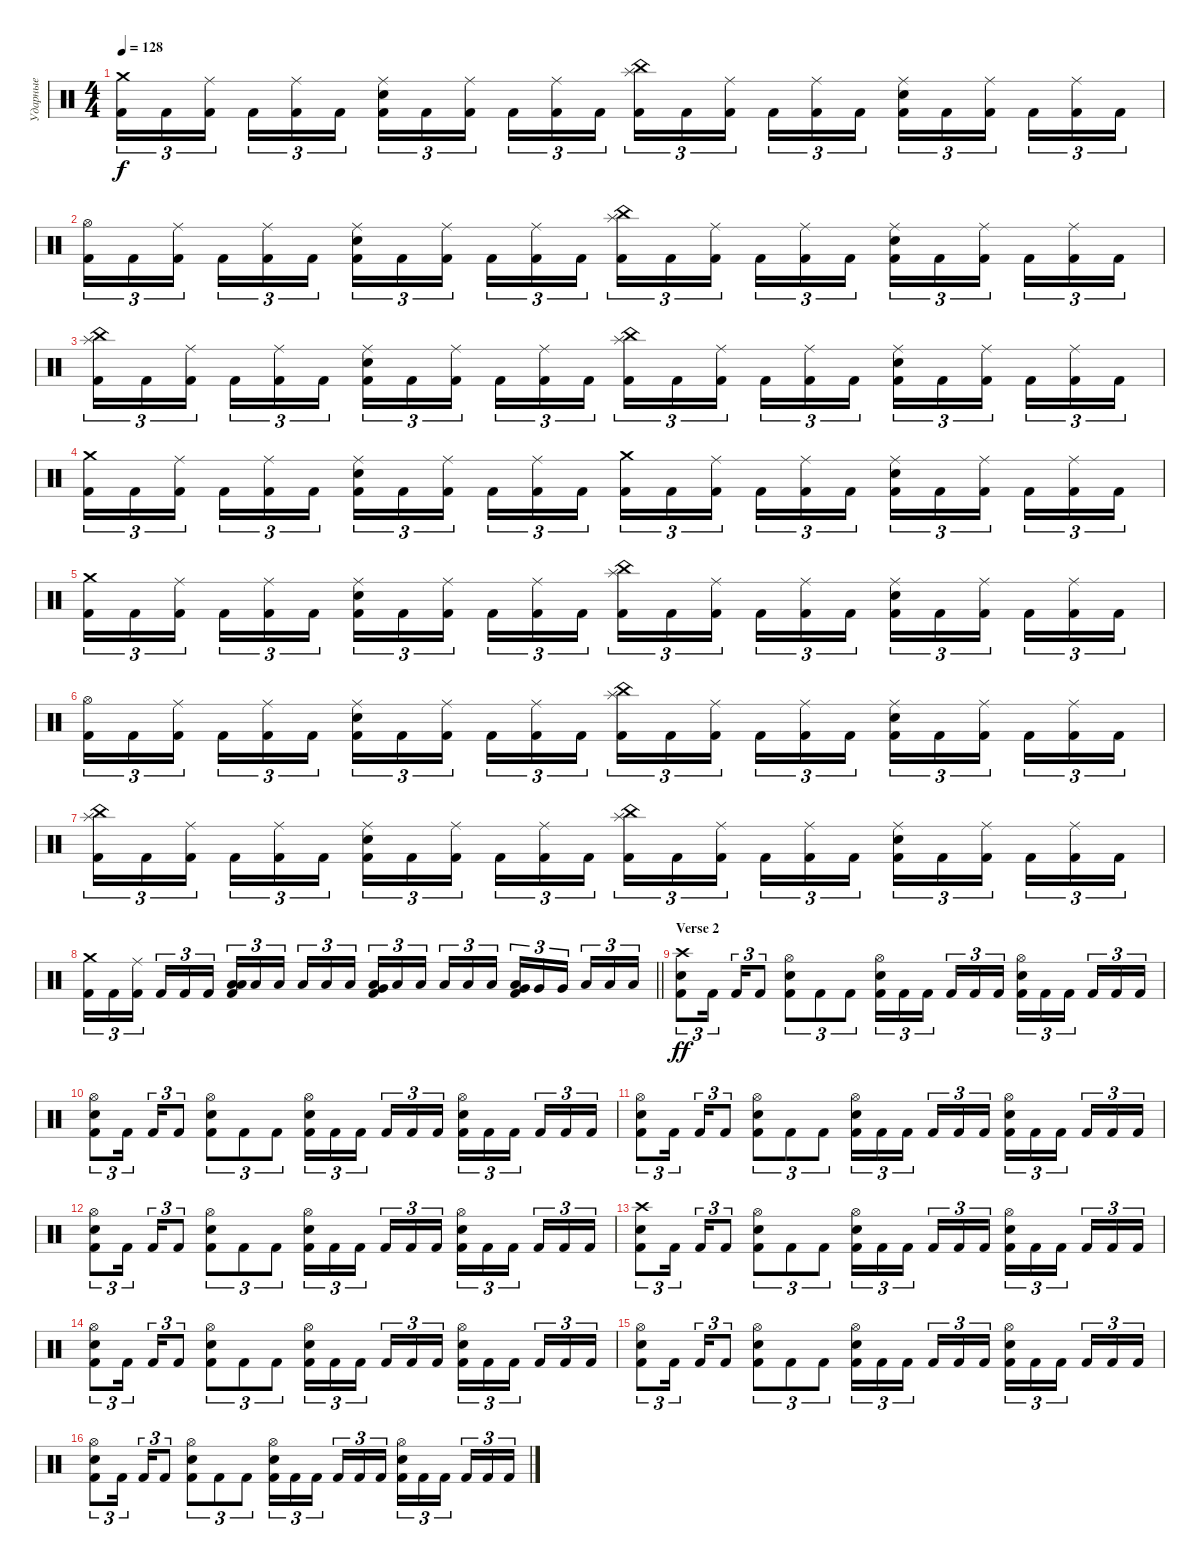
\track ("Ударные" "Ударные") {instrument percussion}
\staff {score}
\articulation defaults
\ts (4 4)
\tempo 128
\clef neutral
\ks c
("Crash medium (hit)" "Kick (hit) 2").16{tu (3 2) dy f} "Kick (hit) 2".16{tu (3 2)} ("Ride (middle)" "Kick (hit) 2").16{tu (3 2) beam splitsecondary} "Kick (hit) 2".16{tu (3 2)} ("Ride (middle)" "Kick (hit) 2").16{tu (3 2)} "Kick (hit) 2".16{tu (3 2)} ("Ride (middle)" "Electric Snare (hit)" "Kick (hit) 2").16{tu (3 2)} "Kick (hit) 2".16{tu (3 2)} ("Ride (middle)" "Kick (hit) 2").16{tu (3 2) beam splitsecondary} "Kick (hit) 2".16{tu (3 2)} ("Ride (middle)" "Kick (hit) 2").16{tu (3 2)} "Kick (hit) 2".16{tu (3 2)} ("China (hit)" "Splash (hit)" "Kick (hit) 2").16{tu (3 2)} "Kick (hit) 2".16{tu (3 2)} ("Ride (middle)" "Kick (hit) 2").16{tu (3 2) beam splitsecondary} "Kick (hit) 2".16{tu (3 2)} ("Ride (middle)" "Kick (hit) 2").16{tu (3 2)} "Kick (hit) 2".16{tu (3 2)} ("Ride (middle)" "Electric Snare (hit)" "Kick (hit) 2").16{tu (3 2)} "Kick (hit) 2".16{tu (3 2)} ("Ride (middle)" "Kick (hit) 2").16{tu (3 2) beam splitsecondary} "Kick (hit) 2".16{tu (3 2)} ("Ride (middle)" "Kick (hit) 2").16{tu (3 2)} "Kick (hit) 2".16{tu (3 2)} |
("Hi-Hat (open)" "Kick (hit) 2").16{tu (3 2)} "Kick (hit) 2".16{tu (3 2)} ("Ride (middle)" "Kick (hit) 2").16{tu (3 2) beam splitsecondary} "Kick (hit) 2".16{tu (3 2)} ("Ride (middle)" "Kick (hit) 2").16{tu (3 2)} "Kick (hit) 2".16{tu (3 2)} ("Ride (middle)" "Electric Snare (hit)" "Kick (hit) 2").16{tu (3 2)} "Kick (hit) 2".16{tu (3 2)} ("Ride (middle)" "Kick (hit) 2").16{tu (3 2) beam splitsecondary} "Kick (hit) 2".16{tu (3 2)} ("Ride (middle)" "Kick (hit) 2").16{tu (3 2)} "Kick (hit) 2".16{tu (3 2)} ("China (hit)" "Splash (hit)" "Kick (hit) 2").16{tu (3 2)} "Kick (hit) 2".16{tu (3 2)} ("Ride (middle)" "Kick (hit) 2").16{tu (3 2) beam splitsecondary} "Kick (hit) 2".16{tu (3 2)} ("Ride (middle)" "Kick (hit) 2").16{tu (3 2)} "Kick (hit) 2".16{tu (3 2)} ("Ride (middle)" "Electric Snare (hit)" "Kick (hit) 2").16{tu (3 2)} "Kick (hit) 2".16{tu (3 2)} ("Ride (middle)" "Kick (hit) 2").16{tu (3 2) beam splitsecondary} "Kick (hit) 2".16{tu (3 2)} ("Ride (middle)" "Kick (hit) 2").16{tu (3 2)} "Kick (hit) 2".16{tu (3 2)} |
("China (hit)" "Splash (hit)" "Kick (hit) 2").16{tu (3 2)} "Kick (hit) 2".16{tu (3 2)} ("Ride (middle)" "Kick (hit) 2").16{tu (3 2) beam splitsecondary} "Kick (hit) 2".16{tu (3 2)} ("Ride (middle)" "Kick (hit) 2").16{tu (3 2)} "Kick (hit) 2".16{tu (3 2)} ("Ride (middle)" "Electric Snare (hit)" "Kick (hit) 2").16{tu (3 2)} "Kick (hit) 2".16{tu (3 2)} ("Ride (middle)" "Kick (hit) 2").16{tu (3 2) beam splitsecondary} "Kick (hit) 2".16{tu (3 2)} ("Ride (middle)" "Kick (hit) 2").16{tu (3 2)} "Kick (hit) 2".16{tu (3 2)} ("China (hit)" "Splash (hit)" "Kick (hit) 2").16{tu (3 2)} "Kick (hit) 2".16{tu (3 2)} ("Ride (middle)" "Kick (hit) 2").16{tu (3 2) beam splitsecondary} "Kick (hit) 2".16{tu (3 2)} ("Ride (middle)" "Kick (hit) 2").16{tu (3 2)} "Kick (hit) 2".16{tu (3 2)} ("Ride (middle)" "Electric Snare (hit)" "Kick (hit) 2").16{tu (3 2)} "Kick (hit) 2".16{tu (3 2)} ("Ride (middle)" "Kick (hit) 2").16{tu (3 2) beam splitsecondary} "Kick (hit) 2".16{tu (3 2)} ("Ride (middle)" "Kick (hit) 2").16{tu (3 2)} "Kick (hit) 2".16{tu (3 2)} |
("Crash medium (hit)" "Kick (hit) 2").16{tu (3 2)} "Kick (hit) 2".16{tu (3 2)} ("Ride (middle)" "Kick (hit) 2").16{tu (3 2) beam splitsecondary} "Kick (hit) 2".16{tu (3 2)} ("Ride (middle)" "Kick (hit) 2").16{tu (3 2)} "Kick (hit) 2".16{tu (3 2)} ("Ride (middle)" "Electric Snare (hit)" "Kick (hit) 2").16{tu (3 2)} "Kick (hit) 2".16{tu (3 2)} ("Ride (middle)" "Kick (hit) 2").16{tu (3 2) beam splitsecondary} "Kick (hit) 2".16{tu (3 2)} ("Ride (middle)" "Kick (hit) 2").16{tu (3 2)} "Kick (hit) 2".16{tu (3 2)} ("Crash medium (hit)" "Kick (hit) 2").16{tu (3 2)} "Kick (hit) 2".16{tu (3 2)} ("Ride (middle)" "Kick (hit) 2").16{tu (3 2) beam splitsecondary} "Kick (hit) 2".16{tu (3 2)} ("Ride (middle)" "Kick (hit) 2").16{tu (3 2)} "Kick (hit) 2".16{tu (3 2)} ("Ride (middle)" "Electric Snare (hit)" "Kick (hit) 2").16{tu (3 2)} "Kick (hit) 2".16{tu (3 2)} ("Ride (middle)" "Kick (hit) 2").16{tu (3 2) beam splitsecondary} "Kick (hit) 2".16{tu (3 2)} ("Ride (middle)" "Kick (hit) 2").16{tu (3 2)} "Kick (hit) 2".16{tu (3 2)} |
("Crash medium (hit)" "Kick (hit) 2").16{tu (3 2)} "Kick (hit) 2".16{tu (3 2)} ("Ride (middle)" "Kick (hit) 2").16{tu (3 2) beam splitsecondary} "Kick (hit) 2".16{tu (3 2)} ("Ride (middle)" "Kick (hit) 2").16{tu (3 2)} "Kick (hit) 2".16{tu (3 2)} ("Ride (middle)" "Electric Snare (hit)" "Kick (hit) 2").16{tu (3 2)} "Kick (hit) 2".16{tu (3 2)} ("Ride (middle)" "Kick (hit) 2").16{tu (3 2) beam splitsecondary} "Kick (hit) 2".16{tu (3 2)} ("Ride (middle)" "Kick (hit) 2").16{tu (3 2)} "Kick (hit) 2".16{tu (3 2)} ("China (hit)" "Splash (hit)" "Kick (hit) 2").16{tu (3 2)} "Kick (hit) 2".16{tu (3 2)} ("Ride (middle)" "Kick (hit) 2").16{tu (3 2) beam splitsecondary} "Kick (hit) 2".16{tu (3 2)} ("Ride (middle)" "Kick (hit) 2").16{tu (3 2)} "Kick (hit) 2".16{tu (3 2)} ("Ride (middle)" "Electric Snare (hit)" "Kick (hit) 2").16{tu (3 2)} "Kick (hit) 2".16{tu (3 2)} ("Ride (middle)" "Kick (hit) 2").16{tu (3 2) beam splitsecondary} "Kick (hit) 2".16{tu (3 2)} ("Ride (middle)" "Kick (hit) 2").16{tu (3 2)} "Kick (hit) 2".16{tu (3 2)} |
("Hi-Hat (open)" "Kick (hit) 2").16{tu (3 2)} "Kick (hit) 2".16{tu (3 2)} ("Ride (middle)" "Kick (hit) 2").16{tu (3 2) beam splitsecondary} "Kick (hit) 2".16{tu (3 2)} ("Ride (middle)" "Kick (hit) 2").16{tu (3 2)} "Kick (hit) 2".16{tu (3 2)} ("Ride (middle)" "Electric Snare (hit)" "Kick (hit) 2").16{tu (3 2)} "Kick (hit) 2".16{tu (3 2)} ("Ride (middle)" "Kick (hit) 2").16{tu (3 2) beam splitsecondary} "Kick (hit) 2".16{tu (3 2)} ("Ride (middle)" "Kick (hit) 2").16{tu (3 2)} "Kick (hit) 2".16{tu (3 2)} ("China (hit)" "Splash (hit)" "Kick (hit) 2").16{tu (3 2)} "Kick (hit) 2".16{tu (3 2)} ("Ride (middle)" "Kick (hit) 2").16{tu (3 2) beam splitsecondary} "Kick (hit) 2".16{tu (3 2)} ("Ride (middle)" "Kick (hit) 2").16{tu (3 2)} "Kick (hit) 2".16{tu (3 2)} ("Ride (middle)" "Electric Snare (hit)" "Kick (hit) 2").16{tu (3 2)} "Kick (hit) 2".16{tu (3 2)} ("Ride (middle)" "Kick (hit) 2").16{tu (3 2) beam splitsecondary} "Kick (hit) 2".16{tu (3 2)} ("Ride (middle)" "Kick (hit) 2").16{tu (3 2)} "Kick (hit) 2".16{tu (3 2)} |
("China (hit)" "Splash (hit)" "Kick (hit) 2").16{tu (3 2)} "Kick (hit) 2".16{tu (3 2)} ("Ride (middle)" "Kick (hit) 2").16{tu (3 2) beam splitsecondary} "Kick (hit) 2".16{tu (3 2)} ("Ride (middle)" "Kick (hit) 2").16{tu (3 2)} "Kick (hit) 2".16{tu (3 2)} ("Ride (middle)" "Electric Snare (hit)" "Kick (hit) 2").16{tu (3 2)} "Kick (hit) 2".16{tu (3 2)} ("Ride (middle)" "Kick (hit) 2").16{tu (3 2) beam splitsecondary} "Kick (hit) 2".16{tu (3 2)} ("Ride (middle)" "Kick (hit) 2").16{tu (3 2)} "Kick (hit) 2".16{tu (3 2)} ("China (hit)" "Splash (hit)" "Kick (hit) 2").16{tu (3 2)} "Kick (hit) 2".16{tu (3 2)} ("Ride (middle)" "Kick (hit) 2").16{tu (3 2) beam splitsecondary} "Kick (hit) 2".16{tu (3 2)} ("Ride (middle)" "Kick (hit) 2").16{tu (3 2)} "Kick (hit) 2".16{tu (3 2)} ("Ride (middle)" "Electric Snare (hit)" "Kick (hit) 2").16{tu (3 2)} "Kick (hit) 2".16{tu (3 2)} ("Ride (middle)" "Kick (hit) 2").16{tu (3 2) beam splitsecondary} "Kick (hit) 2".16{tu (3 2)} ("Ride (middle)" "Kick (hit) 2").16{tu (3 2)} "Kick (hit) 2".16{tu (3 2)} |
\barLineRight lightlight
("Crash medium (hit)" "Kick (hit) 2").16{tu (3 2)} "Kick (hit) 2".16{tu (3 2)} ("Ride (middle)" "Kick (hit) 2").16{tu (3 2) beam splitsecondary} "Kick (hit) 2".16{tu (3 2)} "Kick (hit) 2".16{tu (3 2)} "Kick (hit) 2".16{tu (3 2)} ("Low Floor Tom (hit)" "Low Tom (hit)" "Kick (hit) 2").16{tu (3 2)} "Low Tom (hit)".16{tu (3 2)} "Low Tom (hit)".16{tu (3 2) beam splitsecondary} "Low Tom (hit)".16{tu (3 2)} "Low Tom (hit)".16{tu (3 2)} "Low Tom (hit)".16{tu (3 2)} ("Very Low Tom (hit)" "Low Tom (hit)" "Kick (hit) 2").16{tu (3 2)} "Low Tom (hit)".16{tu (3 2)} "Low Tom (hit)".16{tu (3 2) beam splitsecondary} "Low Tom (hit)".16{tu (3 2)} "Low Tom (hit)".16{tu (3 2)} "Low Tom (hit)".16{tu (3 2)} ("Very Low Tom (hit)" "Low Floor Tom (hit)" "Kick (hit) 2").16{tu (3 2)} "Very Low Tom (hit)".16{tu (3 2)} "Very Low Tom (hit)".16{tu (3 2) beam splitsecondary} "Low Floor Tom (hit)".16{tu (3 2)} "Low Floor Tom (hit)".16{tu (3 2)} "Low Floor Tom (hit)".16{tu (3 2)} |
\section ("" "Verse 2")
("Crash high (hit)" "Electric Snare (hit)" "Kick (hit) 2").8{tu (3 2) dy ff} "Kick (hit) 2".16{tu (3 2) beam splitsecondary} "Kick (hit) 2".16{tu (3 2)} "Kick (hit) 2".8{tu (3 2)} ("Hi-Hat (open)" "Electric Snare (hit)" "Kick (hit) 2").8{tu (3 2)} "Kick (hit) 2".8{tu (3 2)} "Kick (hit) 2".8{tu (3 2)} ("Hi-Hat (open)" "Electric Snare (hit)" "Kick (hit) 2").16{tu (3 2)} "Kick (hit) 2".16{tu (3 2)} "Kick (hit) 2".16{tu (3 2) beam splitsecondary} "Kick (hit) 2".16{tu (3 2)} "Kick (hit) 2".16{tu (3 2)} "Kick (hit) 2".16{tu (3 2)} ("Hi-Hat (open)" "Electric Snare (hit)" "Kick (hit) 2").16{tu (3 2)} "Kick (hit) 2".16{tu (3 2)} "Kick (hit) 2".16{tu (3 2) beam splitsecondary} "Kick (hit) 2".16{tu (3 2)} "Kick (hit) 2".16{tu (3 2)} "Kick (hit) 2".16{tu (3 2)} |
("Hi-Hat (open)" "Electric Snare (hit)" "Kick (hit) 2").8{tu (3 2)} "Kick (hit) 2".16{tu (3 2) beam splitsecondary} "Kick (hit) 2".16{tu (3 2)} "Kick (hit) 2".8{tu (3 2)} ("Hi-Hat (open)" "Electric Snare (hit)" "Kick (hit) 2").8{tu (3 2)} "Kick (hit) 2".8{tu (3 2)} "Kick (hit) 2".8{tu (3 2)} ("Hi-Hat (open)" "Electric Snare (hit)" "Kick (hit) 2").16{tu (3 2)} "Kick (hit) 2".16{tu (3 2)} "Kick (hit) 2".16{tu (3 2) beam splitsecondary} "Kick (hit) 2".16{tu (3 2)} "Kick (hit) 2".16{tu (3 2)} "Kick (hit) 2".16{tu (3 2)} ("Hi-Hat (open)" "Electric Snare (hit)" "Kick (hit) 2").16{tu (3 2)} "Kick (hit) 2".16{tu (3 2)} "Kick (hit) 2".16{tu (3 2) beam splitsecondary} "Kick (hit) 2".16{tu (3 2)} "Kick (hit) 2".16{tu (3 2)} "Kick (hit) 2".16{tu (3 2)} |
("Hi-Hat (open)" "Electric Snare (hit)" "Kick (hit) 2").8{tu (3 2)} "Kick (hit) 2".16{tu (3 2) beam splitsecondary} "Kick (hit) 2".16{tu (3 2)} "Kick (hit) 2".8{tu (3 2)} ("Hi-Hat (open)" "Electric Snare (hit)" "Kick (hit) 2").8{tu (3 2)} "Kick (hit) 2".8{tu (3 2)} "Kick (hit) 2".8{tu (3 2)} ("Hi-Hat (open)" "Electric Snare (hit)" "Kick (hit) 2").16{tu (3 2)} "Kick (hit) 2".16{tu (3 2)} "Kick (hit) 2".16{tu (3 2) beam splitsecondary} "Kick (hit) 2".16{tu (3 2)} "Kick (hit) 2".16{tu (3 2)} "Kick (hit) 2".16{tu (3 2)} ("Hi-Hat (open)" "Electric Snare (hit)" "Kick (hit) 2").16{tu (3 2)} "Kick (hit) 2".16{tu (3 2)} "Kick (hit) 2".16{tu (3 2) beam splitsecondary} "Kick (hit) 2".16{tu (3 2)} "Kick (hit) 2".16{tu (3 2)} "Kick (hit) 2".16{tu (3 2)} |
("Hi-Hat (open)" "Electric Snare (hit)" "Kick (hit) 2").8{tu (3 2)} "Kick (hit) 2".16{tu (3 2) beam splitsecondary} "Kick (hit) 2".16{tu (3 2)} "Kick (hit) 2".8{tu (3 2)} ("Hi-Hat (open)" "Electric Snare (hit)" "Kick (hit) 2").8{tu (3 2)} "Kick (hit) 2".8{tu (3 2)} "Kick (hit) 2".8{tu (3 2)} ("Hi-Hat (open)" "Electric Snare (hit)" "Kick (hit) 2").16{tu (3 2)} "Kick (hit) 2".16{tu (3 2)} "Kick (hit) 2".16{tu (3 2) beam splitsecondary} "Kick (hit) 2".16{tu (3 2)} "Kick (hit) 2".16{tu (3 2)} "Kick (hit) 2".16{tu (3 2)} ("Hi-Hat (open)" "Electric Snare (hit)" "Kick (hit) 2").16{tu (3 2)} "Kick (hit) 2".16{tu (3 2)} "Kick (hit) 2".16{tu (3 2) beam splitsecondary} "Kick (hit) 2".16{tu (3 2)} "Kick (hit) 2".16{tu (3 2)} "Kick (hit) 2".16{tu (3 2)} |
("Crash high (hit)" "Electric Snare (hit)" "Kick (hit) 2").8{tu (3 2)} "Kick (hit) 2".16{tu (3 2) beam splitsecondary} "Kick (hit) 2".16{tu (3 2)} "Kick (hit) 2".8{tu (3 2)} ("Hi-Hat (open)" "Electric Snare (hit)" "Kick (hit) 2").8{tu (3 2)} "Kick (hit) 2".8{tu (3 2)} "Kick (hit) 2".8{tu (3 2)} ("Hi-Hat (open)" "Electric Snare (hit)" "Kick (hit) 2").16{tu (3 2)} "Kick (hit) 2".16{tu (3 2)} "Kick (hit) 2".16{tu (3 2) beam splitsecondary} "Kick (hit) 2".16{tu (3 2)} "Kick (hit) 2".16{tu (3 2)} "Kick (hit) 2".16{tu (3 2)} ("Hi-Hat (open)" "Electric Snare (hit)" "Kick (hit) 2").16{tu (3 2)} "Kick (hit) 2".16{tu (3 2)} "Kick (hit) 2".16{tu (3 2) beam splitsecondary} "Kick (hit) 2".16{tu (3 2)} "Kick (hit) 2".16{tu (3 2)} "Kick (hit) 2".16{tu (3 2)} |
("Hi-Hat (open)" "Electric Snare (hit)" "Kick (hit) 2").8{tu (3 2)} "Kick (hit) 2".16{tu (3 2) beam splitsecondary} "Kick (hit) 2".16{tu (3 2)} "Kick (hit) 2".8{tu (3 2)} ("Hi-Hat (open)" "Electric Snare (hit)" "Kick (hit) 2").8{tu (3 2)} "Kick (hit) 2".8{tu (3 2)} "Kick (hit) 2".8{tu (3 2)} ("Hi-Hat (open)" "Electric Snare (hit)" "Kick (hit) 2").16{tu (3 2)} "Kick (hit) 2".16{tu (3 2)} "Kick (hit) 2".16{tu (3 2) beam splitsecondary} "Kick (hit) 2".16{tu (3 2)} "Kick (hit) 2".16{tu (3 2)} "Kick (hit) 2".16{tu (3 2)} ("Hi-Hat (open)" "Electric Snare (hit)" "Kick (hit) 2").16{tu (3 2)} "Kick (hit) 2".16{tu (3 2)} "Kick (hit) 2".16{tu (3 2) beam splitsecondary} "Kick (hit) 2".16{tu (3 2)} "Kick (hit) 2".16{tu (3 2)} "Kick (hit) 2".16{tu (3 2)} |
("Hi-Hat (open)" "Electric Snare (hit)" "Kick (hit) 2").8{tu (3 2)} "Kick (hit) 2".16{tu (3 2) beam splitsecondary} "Kick (hit) 2".16{tu (3 2)} "Kick (hit) 2".8{tu (3 2)} ("Hi-Hat (open)" "Electric Snare (hit)" "Kick (hit) 2").8{tu (3 2)} "Kick (hit) 2".8{tu (3 2)} "Kick (hit) 2".8{tu (3 2)} ("Hi-Hat (open)" "Electric Snare (hit)" "Kick (hit) 2").16{tu (3 2)} "Kick (hit) 2".16{tu (3 2)} "Kick (hit) 2".16{tu (3 2) beam splitsecondary} "Kick (hit) 2".16{tu (3 2)} "Kick (hit) 2".16{tu (3 2)} "Kick (hit) 2".16{tu (3 2)} ("Hi-Hat (open)" "Electric Snare (hit)" "Kick (hit) 2").16{tu (3 2)} "Kick (hit) 2".16{tu (3 2)} "Kick (hit) 2".16{tu (3 2) beam splitsecondary} "Kick (hit) 2".16{tu (3 2)} "Kick (hit) 2".16{tu (3 2)} "Kick (hit) 2".16{tu (3 2)} |
("Hi-Hat (open)" "Electric Snare (hit)" "Kick (hit) 2").8{tu (3 2)} "Kick (hit) 2".16{tu (3 2) beam splitsecondary} "Kick (hit) 2".16{tu (3 2)} "Kick (hit) 2".8{tu (3 2)} ("Hi-Hat (open)" "Electric Snare (hit)" "Kick (hit) 2").8{tu (3 2)} "Kick (hit) 2".8{tu (3 2)} "Kick (hit) 2".8{tu (3 2)} ("Hi-Hat (open)" "Electric Snare (hit)" "Kick (hit) 2").16{tu (3 2)} "Kick (hit) 2".16{tu (3 2)} "Kick (hit) 2".16{tu (3 2) beam splitsecondary} "Kick (hit) 2".16{tu (3 2)} "Kick (hit) 2".16{tu (3 2)} "Kick (hit) 2".16{tu (3 2)} ("Hi-Hat (open)" "Electric Snare (hit)" "Kick (hit) 2").16{tu (3 2)} "Kick (hit) 2".16{tu (3 2)} "Kick (hit) 2".16{tu (3 2) beam splitsecondary} "Kick (hit) 2".16{tu (3 2)} "Kick (hit) 2".16{tu (3 2)} "Kick (hit) 2".16{tu (3 2)}
